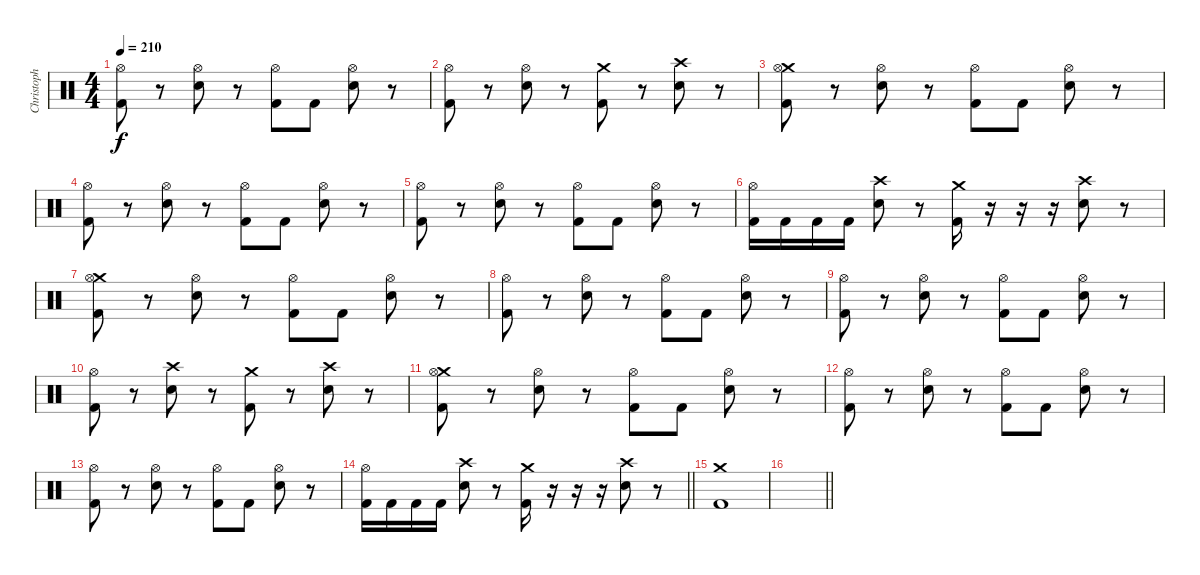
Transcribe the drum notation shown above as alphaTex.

\track ("Christoph Schneider" "Christoph ") {instrument percussion}
\staff {score}
\articulation defaults
\ts (4 4)
\tempo 210
\clef neutral
\ks c
("Hi-Hat (open)" "Kick (hit) 2").8{dy f} r.8 ("Hi-Hat (open)" "Electric Snare (hit)").8 r.8 ("Hi-Hat (open)" "Kick (hit) 2").8 "Kick (hit) 2".8 ("Hi-Hat (open)" "Electric Snare (hit)").8 r.8 |
("Hi-Hat (open)" "Kick (hit) 2").8 r.8 ("Hi-Hat (open)" "Electric Snare (hit)").8 r.8 ("Crash medium (hit)" "Kick (hit) 2").8 r.8 ("Crash high (hit)" "Electric Snare (hit)").8 r.8 |
("Crash medium (hit)" "Kick (hit) 2" "Hi-Hat (open)").8 r.8 ("Hi-Hat (open)" "Electric Snare (hit)").8 r.8 ("Hi-Hat (open)" "Kick (hit) 2").8 "Kick (hit) 2".8 ("Hi-Hat (open)" "Electric Snare (hit)").8 r.8 |
("Hi-Hat (open)" "Kick (hit) 2").8 r.8 ("Hi-Hat (open)" "Electric Snare (hit)").8 r.8 ("Hi-Hat (open)" "Kick (hit) 2").8 "Kick (hit) 2".8 ("Hi-Hat (open)" "Electric Snare (hit)").8 r.8 |
("Hi-Hat (open)" "Kick (hit) 2").8 r.8 ("Hi-Hat (open)" "Electric Snare (hit)").8 r.8 ("Hi-Hat (open)" "Kick (hit) 2").8 "Kick (hit) 2".8 ("Hi-Hat (open)" "Electric Snare (hit)").8 r.8 |
("Hi-Hat (open)" "Kick (hit) 2").16 "Kick (hit) 2".16 "Kick (hit) 2".16 "Kick (hit) 2".16 ("Crash high (hit)" "Electric Snare (hit)").8 r.8 ("Crash medium (hit)" "Kick (hit) 2").16 r.16 r.16 r.16 ("Crash high (hit)" "Electric Snare (hit)").8 r.8 |
("Crash medium (hit)" "Kick (hit) 2" "Hi-Hat (open)").8 r.8 ("Hi-Hat (open)" "Electric Snare (hit)").8 r.8 ("Hi-Hat (open)" "Kick (hit) 2").8 "Kick (hit) 2".8 ("Hi-Hat (open)" "Electric Snare (hit)").8 r.8 |
("Hi-Hat (open)" "Kick (hit) 2").8 r.8 ("Hi-Hat (open)" "Electric Snare (hit)").8 r.8 ("Hi-Hat (open)" "Kick (hit) 2").8 "Kick (hit) 2".8 ("Hi-Hat (open)" "Electric Snare (hit)").8 r.8 |
("Hi-Hat (open)" "Kick (hit) 2").8 r.8 ("Hi-Hat (open)" "Electric Snare (hit)").8 r.8 ("Hi-Hat (open)" "Kick (hit) 2").8 "Kick (hit) 2".8 ("Hi-Hat (open)" "Electric Snare (hit)").8 r.8 |
("Hi-Hat (open)" "Kick (hit) 2").8 r.8 ("Crash high (hit)" "Electric Snare (hit)").8 r.8 ("Crash medium (hit)" "Kick (hit) 2").8 r.8 ("Crash high (hit)" "Electric Snare (hit)").8 r.8 |
("Crash medium (hit)" "Kick (hit) 2" "Hi-Hat (open)").8 r.8 ("Hi-Hat (open)" "Electric Snare (hit)").8 r.8 ("Hi-Hat (open)" "Kick (hit) 2").8 "Kick (hit) 2".8 ("Hi-Hat (open)" "Electric Snare (hit)").8 r.8 |
("Hi-Hat (open)" "Kick (hit) 2").8 r.8 ("Hi-Hat (open)" "Electric Snare (hit)").8 r.8 ("Hi-Hat (open)" "Kick (hit) 2").8 "Kick (hit) 2".8 ("Hi-Hat (open)" "Electric Snare (hit)").8 r.8 |
("Hi-Hat (open)" "Kick (hit) 2").8 r.8 ("Hi-Hat (open)" "Electric Snare (hit)").8 r.8 ("Hi-Hat (open)" "Kick (hit) 2").8 "Kick (hit) 2".8 ("Hi-Hat (open)" "Electric Snare (hit)").8 r.8 |
\barLineRight lightlight
("Hi-Hat (open)" "Kick (hit) 2").16 "Kick (hit) 2".16 "Kick (hit) 2".16 "Kick (hit) 2".16 ("Crash high (hit)" "Electric Snare (hit)").8 r.8 ("Crash medium (hit)" "Kick (hit) 2").16 r.16 r.16 r.16 ("Crash high (hit)" "Electric Snare (hit)").8 r.8 |
\section ("" "")
("Crash medium (hit)" "Kick (hit) 2").1 |
\barLineRight lightlight
